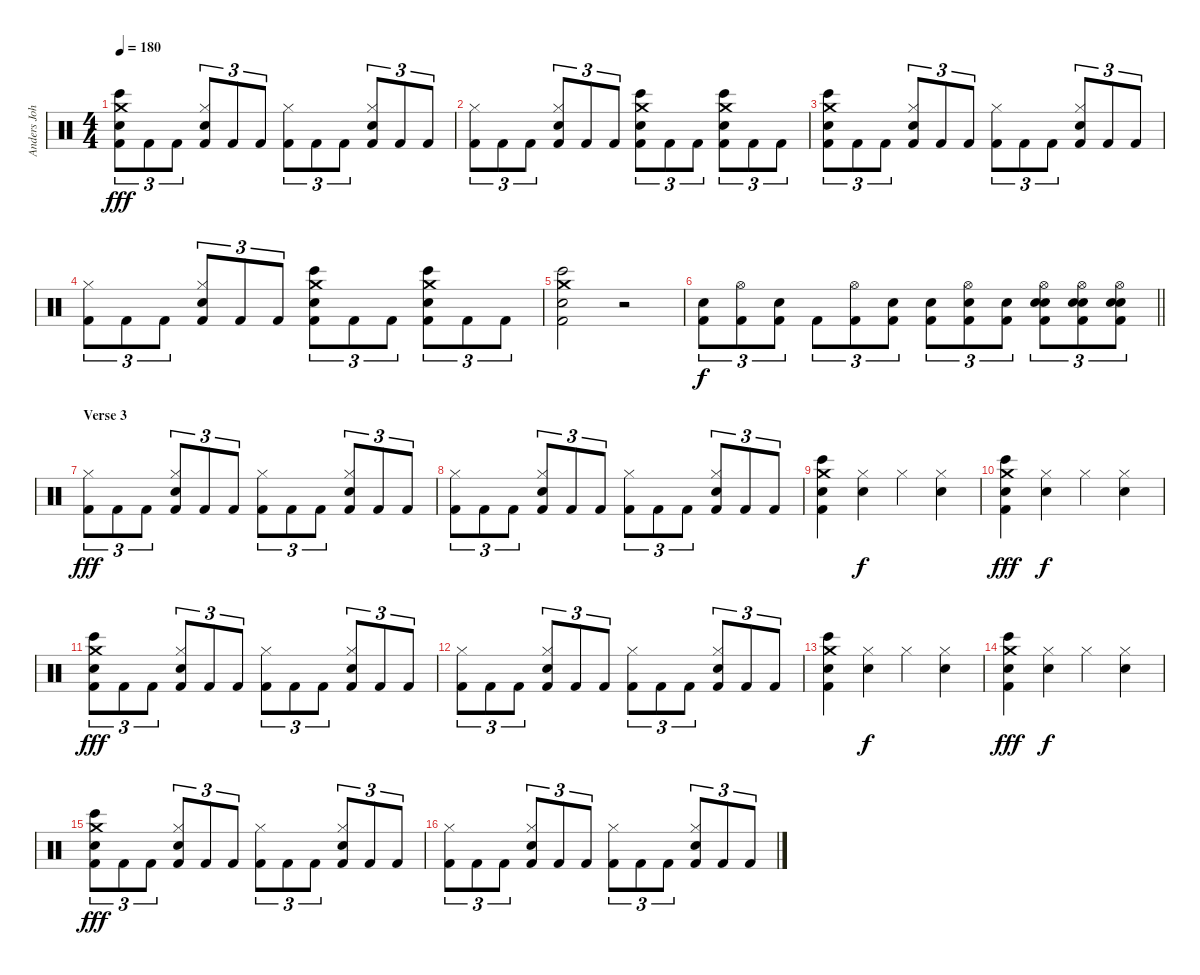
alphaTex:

\track ("Anders Johansson" "Anders Joh") {instrument percussion}
\staff {score}
\articulation defaults
\ts (4 4)
\tempo 180
\clef neutral
\ks c
("Bongo High (hit)" "Crash medium (hit)" "Snare (hit) 2" "Kick (hit) 2").8{tu (3 2) dy fff} "Kick (hit) 2".8{tu (3 2)} "Kick (hit) 2".8{tu (3 2)} ("Hi-Hat (closed)" "Electric Snare (hit)" "Kick (hit) 2").8{tu (3 2)} "Kick (hit) 2".8{tu (3 2)} "Kick (hit) 2".8{tu (3 2)} ("Hi-Hat (closed)" "Kick (hit) 2").8{tu (3 2)} "Kick (hit) 2".8{tu (3 2)} "Kick (hit) 2".8{tu (3 2)} ("Hi-Hat (closed)" "Electric Snare (hit)" "Kick (hit) 2").8{tu (3 2)} "Kick (hit) 2".8{tu (3 2)} "Kick (hit) 2".8{tu (3 2)} |
("Hi-Hat (closed)" "Kick (hit) 2").8{tu (3 2)} "Kick (hit) 2".8{tu (3 2)} "Kick (hit) 2".8{tu (3 2)} ("Hi-Hat (closed)" "Electric Snare (hit)" "Kick (hit) 2").8{tu (3 2)} "Kick (hit) 2".8{tu (3 2)} "Kick (hit) 2".8{tu (3 2)} ("Bongo High (hit)" "Crash medium (hit)" "Snare (hit) 2" "Kick (hit) 2").8{tu (3 2)} "Kick (hit) 2".8{tu (3 2)} "Kick (hit) 2".8{tu (3 2)} ("Bongo High (hit)" "Crash medium (hit)" "Snare (hit) 2" "Kick (hit) 2").8{tu (3 2)} "Kick (hit) 2".8{tu (3 2)} "Kick (hit) 2".8{tu (3 2)} |
("Bongo High (hit)" "Crash medium (hit)" "Snare (hit) 2" "Kick (hit) 2").8{tu (3 2)} "Kick (hit) 2".8{tu (3 2)} "Kick (hit) 2".8{tu (3 2)} ("Hi-Hat (closed)" "Electric Snare (hit)" "Kick (hit) 2").8{tu (3 2)} "Kick (hit) 2".8{tu (3 2)} "Kick (hit) 2".8{tu (3 2)} ("Hi-Hat (closed)" "Kick (hit) 2").8{tu (3 2)} "Kick (hit) 2".8{tu (3 2)} "Kick (hit) 2".8{tu (3 2)} ("Hi-Hat (closed)" "Electric Snare (hit)" "Kick (hit) 2").8{tu (3 2)} "Kick (hit) 2".8{tu (3 2)} "Kick (hit) 2".8{tu (3 2)} |
("Hi-Hat (closed)" "Kick (hit) 2").8{tu (3 2)} "Kick (hit) 2".8{tu (3 2)} "Kick (hit) 2".8{tu (3 2)} ("Hi-Hat (closed)" "Electric Snare (hit)" "Kick (hit) 2").8{tu (3 2)} "Kick (hit) 2".8{tu (3 2)} "Kick (hit) 2".8{tu (3 2)} ("Bongo High (hit)" "Crash medium (hit)" "Snare (hit) 2" "Kick (hit) 2").8{tu (3 2)} "Kick (hit) 2".8{tu (3 2)} "Kick (hit) 2".8{tu (3 2)} ("Bongo High (hit)" "Crash medium (hit)" "Snare (hit) 2" "Kick (hit) 2").8{tu (3 2)} "Kick (hit) 2".8{tu (3 2)} "Kick (hit) 2".8{tu (3 2)} |
("Bongo High (hit)" "Crash medium (hit)" "Snare (hit) 2" "Kick (hit) 2").2 r.2 |
\barLineRight lightlight
("Snare (hit) 2" "Kick (hit) 2").8{tu (3 2) dy f} ("Hi-Hat (open)" "Kick (hit) 2").8{tu (3 2)} ("Snare (hit) 2" "Kick (hit) 2").8{tu (3 2)} "Kick (hit) 2".8{tu (3 2)} ("Hi-Hat (open)" "Kick (hit) 2").8{tu (3 2)} ("Snare (hit) 2" "Kick (hit) 2").8{tu (3 2)} ("Snare (hit) 2" "Kick (hit) 2").8{tu (3 2)} ("Hi-Hat (open)" "Electric Snare (hit)" "Kick (hit) 2").8{tu (3 2)} ("Snare (hit) 2" "Kick (hit) 2").8{tu (3 2)} ("Hi-Hat (open)" "Snare (hit) 2" "Electric Snare (hit)" "Kick (hit) 2").8{tu (3 2)} ("Hi-Hat (open)" "Snare (hit) 2" "Electric Snare (hit)" "Kick (hit) 2").8{tu (3 2)} ("Hi-Hat (open)" "Snare (hit) 2" "Electric Snare (hit)" "Kick (hit) 2").8{tu (3 2)} |
\section ("" "Verse 3")
("Hi-Hat (closed)" "Kick (hit) 2").8{tu (3 2) dy fff} "Kick (hit) 2".8{tu (3 2)} "Kick (hit) 2".8{tu (3 2)} ("Hi-Hat (closed)" "Electric Snare (hit)" "Kick (hit) 2").8{tu (3 2)} "Kick (hit) 2".8{tu (3 2)} "Kick (hit) 2".8{tu (3 2)} ("Hi-Hat (closed)" "Kick (hit) 2").8{tu (3 2)} "Kick (hit) 2".8{tu (3 2)} "Kick (hit) 2".8{tu (3 2)} ("Hi-Hat (closed)" "Electric Snare (hit)" "Kick (hit) 2").8{tu (3 2)} "Kick (hit) 2".8{tu (3 2)} "Kick (hit) 2".8{tu (3 2)} |
("Hi-Hat (closed)" "Kick (hit) 2").8{tu (3 2)} "Kick (hit) 2".8{tu (3 2)} "Kick (hit) 2".8{tu (3 2)} ("Hi-Hat (closed)" "Electric Snare (hit)" "Kick (hit) 2").8{tu (3 2)} "Kick (hit) 2".8{tu (3 2)} "Kick (hit) 2".8{tu (3 2)} ("Hi-Hat (closed)" "Kick (hit) 2").8{tu (3 2)} "Kick (hit) 2".8{tu (3 2)} "Kick (hit) 2".8{tu (3 2)} ("Hi-Hat (closed)" "Electric Snare (hit)" "Kick (hit) 2").8{tu (3 2)} "Kick (hit) 2".8{tu (3 2)} "Kick (hit) 2".8{tu (3 2)} |
("Bongo High (hit)" "Crash medium (hit)" "Snare (hit) 2" "Kick (hit) 2").4 ("Hi-Hat (closed)" "Electric Snare (hit)").4{dy f} "Hi-Hat (closed)".4 ("Hi-Hat (closed)" "Electric Snare (hit)").4 |
("Bongo High (hit)" "Crash medium (hit)" "Snare (hit) 2" "Kick (hit) 2").4{dy fff} ("Hi-Hat (closed)" "Electric Snare (hit)").4{dy f} "Hi-Hat (closed)".4 ("Hi-Hat (closed)" "Electric Snare (hit)").4 |
("Bongo High (hit)" "Crash medium (hit)" "Snare (hit) 2" "Kick (hit) 2").8{tu (3 2) dy fff} "Kick (hit) 2".8{tu (3 2)} "Kick (hit) 2".8{tu (3 2)} ("Hi-Hat (closed)" "Electric Snare (hit)" "Kick (hit) 2").8{tu (3 2)} "Kick (hit) 2".8{tu (3 2)} "Kick (hit) 2".8{tu (3 2)} ("Hi-Hat (closed)" "Kick (hit) 2").8{tu (3 2)} "Kick (hit) 2".8{tu (3 2)} "Kick (hit) 2".8{tu (3 2)} ("Hi-Hat (closed)" "Electric Snare (hit)" "Kick (hit) 2").8{tu (3 2)} "Kick (hit) 2".8{tu (3 2)} "Kick (hit) 2".8{tu (3 2)} |
("Hi-Hat (closed)" "Kick (hit) 2").8{tu (3 2)} "Kick (hit) 2".8{tu (3 2)} "Kick (hit) 2".8{tu (3 2)} ("Hi-Hat (closed)" "Electric Snare (hit)" "Kick (hit) 2").8{tu (3 2)} "Kick (hit) 2".8{tu (3 2)} "Kick (hit) 2".8{tu (3 2)} ("Hi-Hat (closed)" "Kick (hit) 2").8{tu (3 2)} "Kick (hit) 2".8{tu (3 2)} "Kick (hit) 2".8{tu (3 2)} ("Hi-Hat (closed)" "Electric Snare (hit)" "Kick (hit) 2").8{tu (3 2)} "Kick (hit) 2".8{tu (3 2)} "Kick (hit) 2".8{tu (3 2)} |
("Bongo High (hit)" "Crash medium (hit)" "Snare (hit) 2" "Kick (hit) 2").4 ("Hi-Hat (closed)" "Electric Snare (hit)").4{dy f} "Hi-Hat (closed)".4 ("Hi-Hat (closed)" "Electric Snare (hit)").4 |
("Bongo High (hit)" "Crash medium (hit)" "Snare (hit) 2" "Kick (hit) 2").4{dy fff} ("Hi-Hat (closed)" "Electric Snare (hit)").4{dy f} "Hi-Hat (closed)".4 ("Hi-Hat (closed)" "Electric Snare (hit)").4 |
("Bongo High (hit)" "Crash medium (hit)" "Snare (hit) 2" "Kick (hit) 2").8{tu (3 2) dy fff} "Kick (hit) 2".8{tu (3 2)} "Kick (hit) 2".8{tu (3 2)} ("Hi-Hat (closed)" "Electric Snare (hit)" "Kick (hit) 2").8{tu (3 2)} "Kick (hit) 2".8{tu (3 2)} "Kick (hit) 2".8{tu (3 2)} ("Hi-Hat (closed)" "Kick (hit) 2").8{tu (3 2)} "Kick (hit) 2".8{tu (3 2)} "Kick (hit) 2".8{tu (3 2)} ("Hi-Hat (closed)" "Electric Snare (hit)" "Kick (hit) 2").8{tu (3 2)} "Kick (hit) 2".8{tu (3 2)} "Kick (hit) 2".8{tu (3 2)} |
("Hi-Hat (closed)" "Kick (hit) 2").8{tu (3 2)} "Kick (hit) 2".8{tu (3 2)} "Kick (hit) 2".8{tu (3 2)} ("Hi-Hat (closed)" "Electric Snare (hit)" "Kick (hit) 2").8{tu (3 2)} "Kick (hit) 2".8{tu (3 2)} "Kick (hit) 2".8{tu (3 2)} ("Hi-Hat (closed)" "Kick (hit) 2").8{tu (3 2)} "Kick (hit) 2".8{tu (3 2)} "Kick (hit) 2".8{tu (3 2)} ("Hi-Hat (closed)" "Electric Snare (hit)" "Kick (hit) 2").8{tu (3 2)} "Kick (hit) 2".8{tu (3 2)} "Kick (hit) 2".8{tu (3 2)}
